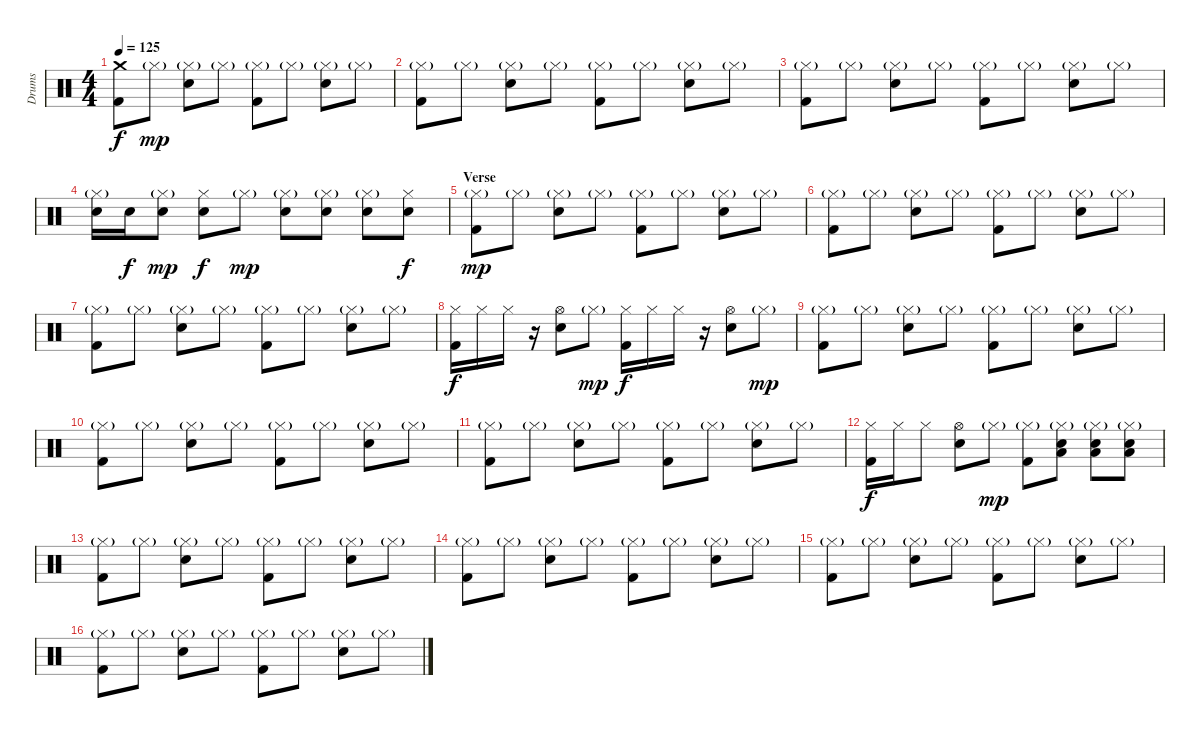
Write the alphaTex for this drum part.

\track ("Drums" "Drums") {instrument percussion}
\staff {score}
\articulation defaults
\ts (4 4)
\tempo 125
\clef neutral
\ks c
("Crash medium (hit)" "Kick (hit) 2").8{dy f} "Hi-Hat (closed)"{g}.8{dy mp} ("Hi-Hat (closed)"{g} "Snare (hit) 2").8 "Hi-Hat (closed)"{g}.8 ("Hi-Hat (closed)"{g} "Kick (hit) 2").8 "Hi-Hat (closed)"{g}.8 ("Hi-Hat (closed)"{g} "Snare (hit) 2").8 "Hi-Hat (closed)"{g}.8 |
("Hi-Hat (closed)"{g} "Kick (hit) 2").8 "Hi-Hat (closed)"{g}.8 ("Hi-Hat (closed)"{g} "Snare (hit) 2").8 "Hi-Hat (closed)"{g}.8 ("Hi-Hat (closed)"{g} "Kick (hit) 2").8 "Hi-Hat (closed)"{g}.8 ("Hi-Hat (closed)"{g} "Snare (hit) 2").8 "Hi-Hat (closed)"{g}.8 |
("Hi-Hat (closed)"{g} "Kick (hit) 2").8 "Hi-Hat (closed)"{g}.8 ("Hi-Hat (closed)"{g} "Snare (hit) 2").8 "Hi-Hat (closed)"{g}.8 ("Hi-Hat (closed)"{g} "Kick (hit) 2").8 "Hi-Hat (closed)"{g}.8 ("Hi-Hat (closed)"{g} "Snare (hit) 2").8 "Hi-Hat (closed)"{g}.8 |
("Hi-Hat (closed)"{g} "Snare (hit) 2").16 "Snare (hit) 2".16{dy f} ("Hi-Hat (closed)"{g} "Snare (hit) 2").8{dy mp} ("Hi-Hat (closed)" "Snare (hit) 2").8{dy f} "Hi-Hat (closed)"{g}.8{dy mp} ("Hi-Hat (closed)"{g} "Snare (hit) 2").8 ("Hi-Hat (closed)"{g} "Snare (hit) 2").8 ("Hi-Hat (closed)"{g} "Snare (hit) 2").8 ("Hi-Hat (closed)" "Snare (hit) 2").8{dy f} |
\section ("" "Verse")
("Hi-Hat (closed)"{g} "Kick (hit) 2").8{dy mp} "Hi-Hat (closed)"{g}.8 ("Hi-Hat (closed)"{g} "Snare (hit) 2").8 "Hi-Hat (closed)"{g}.8 ("Hi-Hat (closed)"{g} "Kick (hit) 2").8 "Hi-Hat (closed)"{g}.8 ("Hi-Hat (closed)"{g} "Snare (hit) 2").8 "Hi-Hat (closed)"{g}.8 |
("Hi-Hat (closed)"{g} "Kick (hit) 2").8 "Hi-Hat (closed)"{g}.8 ("Hi-Hat (closed)"{g} "Snare (hit) 2").8 "Hi-Hat (closed)"{g}.8 ("Hi-Hat (closed)"{g} "Kick (hit) 2").8 "Hi-Hat (closed)"{g}.8 ("Hi-Hat (closed)"{g} "Snare (hit) 2").8 "Hi-Hat (closed)"{g}.8 |
("Hi-Hat (closed)"{g} "Kick (hit) 2").8 "Hi-Hat (closed)"{g}.8 ("Hi-Hat (closed)"{g} "Snare (hit) 2").8 "Hi-Hat (closed)"{g}.8 ("Hi-Hat (closed)"{g} "Kick (hit) 2").8 "Hi-Hat (closed)"{g}.8 ("Hi-Hat (closed)"{g} "Snare (hit) 2").8 "Hi-Hat (closed)"{g}.8 |
("Hi-Hat (closed)" "Kick (hit) 2").16{dy f balance 0} "Hi-Hat (closed)".16 "Hi-Hat (closed)".16 r.16 ("Hi-Hat (open)" "Snare (hit) 2").8 "Hi-Hat (closed)"{g}.8{dy mp balance 16} ("Hi-Hat (closed)" "Kick (hit) 2").16{dy f} "Hi-Hat (closed)".16 "Hi-Hat (closed)".16 r.16 ("Hi-Hat (open)" "Snare (hit) 2").8 "Hi-Hat (closed)"{g}.8{dy mp} |
("Hi-Hat (closed)"{g} "Kick (hit) 2").8{balance 8} "Hi-Hat (closed)"{g}.8 ("Hi-Hat (closed)"{g} "Snare (hit) 2").8 "Hi-Hat (closed)"{g}.8 ("Hi-Hat (closed)"{g} "Kick (hit) 2").8 "Hi-Hat (closed)"{g}.8 ("Hi-Hat (closed)"{g} "Snare (hit) 2").8 "Hi-Hat (closed)"{g}.8 |
("Hi-Hat (closed)"{g} "Kick (hit) 2").8 "Hi-Hat (closed)"{g}.8 ("Hi-Hat (closed)"{g} "Snare (hit) 2").8 "Hi-Hat (closed)"{g}.8 ("Hi-Hat (closed)"{g} "Kick (hit) 2").8 "Hi-Hat (closed)"{g}.8 ("Hi-Hat (closed)"{g} "Snare (hit) 2").8 "Hi-Hat (closed)"{g}.8 |
("Hi-Hat (closed)"{g} "Kick (hit) 2").8 "Hi-Hat (closed)"{g}.8 ("Hi-Hat (closed)"{g} "Snare (hit) 2").8 "Hi-Hat (closed)"{g}.8 ("Hi-Hat (closed)"{g} "Kick (hit) 2").8 "Hi-Hat (closed)"{g}.8 ("Hi-Hat (closed)"{g} "Snare (hit) 2").8 "Hi-Hat (closed)"{g}.8 |
("Hi-Hat (closed)" "Kick (hit) 2").16{dy f} "Hi-Hat (closed)".16 "Hi-Hat (closed)".8 ("Hi-Hat (open)" "Snare (hit) 2").8 "Hi-Hat (closed)"{g}.8{dy mp} ("Hi-Hat (closed)"{g} "Kick (hit) 2").8 ("Hi-Hat (closed)"{g} "Snare (hit) 2" "Low Tom (hit)").8 ("Hi-Hat (closed)"{g} "Snare (hit) 2" "Low Tom (hit)").8 ("Hi-Hat (closed)"{g} "Snare (hit) 2" "Low Tom (hit)").8 |
("Hi-Hat (closed)"{g} "Kick (hit) 2").8{balance 8} "Hi-Hat (closed)"{g}.8 ("Hi-Hat (closed)"{g} "Snare (hit) 2").8 "Hi-Hat (closed)"{g}.8 ("Hi-Hat (closed)"{g} "Kick (hit) 2").8 "Hi-Hat (closed)"{g}.8 ("Hi-Hat (closed)"{g} "Snare (hit) 2").8 "Hi-Hat (closed)"{g}.8 |
("Hi-Hat (closed)"{g} "Kick (hit) 2").8 "Hi-Hat (closed)"{g}.8 ("Hi-Hat (closed)"{g} "Snare (hit) 2").8 "Hi-Hat (closed)"{g}.8 ("Hi-Hat (closed)"{g} "Kick (hit) 2").8 "Hi-Hat (closed)"{g}.8 ("Hi-Hat (closed)"{g} "Snare (hit) 2").8 "Hi-Hat (closed)"{g}.8 |
("Hi-Hat (closed)"{g} "Kick (hit) 2").8 "Hi-Hat (closed)"{g}.8 ("Hi-Hat (closed)"{g} "Snare (hit) 2").8 "Hi-Hat (closed)"{g}.8 ("Hi-Hat (closed)"{g} "Kick (hit) 2").8 "Hi-Hat (closed)"{g}.8 ("Hi-Hat (closed)"{g} "Snare (hit) 2").8 "Hi-Hat (closed)"{g}.8 |
("Hi-Hat (closed)"{g} "Kick (hit) 2").8 "Hi-Hat (closed)"{g}.8 ("Hi-Hat (closed)"{g} "Snare (hit) 2").8 "Hi-Hat (closed)"{g}.8 ("Hi-Hat (closed)"{g} "Kick (hit) 2").8 "Hi-Hat (closed)"{g}.8 ("Hi-Hat (closed)"{g} "Snare (hit) 2").8 "Hi-Hat (closed)"{g}.8
